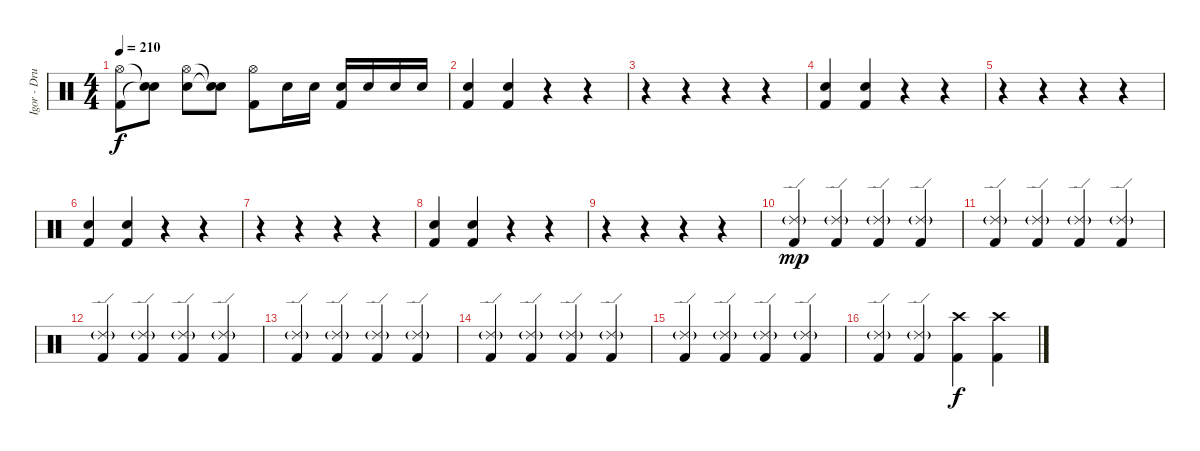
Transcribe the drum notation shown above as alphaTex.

\track ("Igor - Drums" "Igor - Dru") {instrument percussion}
\staff {score}
\articulation defaults
\ts (4 4)
\tempo 210
\clef neutral
\ks c
("Hi-Hat (open)" "Kick (hit) 2").8{dy f} ("Snare (hit)"{t} "Snare (hit)"{t}).8 ("Hi-Hat (open)" "Snare (hit) 2").8 ("Snare (hit)"{t} "Snare (hit)"{t}).8 ("Hi-Hat (open)" "Kick (hit) 2").8 "Snare (hit) 2".16 "Snare (hit) 2".16 ("Snare (hit) 2" "Kick (hit) 2").16 "Snare (hit) 2".16 "Snare (hit) 2".16 "Snare (hit) 2".16 |
("Snare (hit) 2" "Kick (hit) 2").4 ("Snare (hit) 2" "Kick (hit) 2").4 r.4 r.4 |
r.4 r.4 r.4 r.4 |
("Snare (hit) 2" "Kick (hit) 2").4 ("Snare (hit) 2" "Kick (hit) 2").4 r.4 r.4 |
r.4 r.4 r.4 r.4 |
("Snare (hit) 2" "Kick (hit) 2").4 ("Snare (hit) 2" "Kick (hit) 2").4 r.4 r.4 |
r.4 r.4 r.4 r.4 |
("Snare (hit) 2" "Kick (hit) 2").4 ("Snare (hit) 2" "Kick (hit) 2").4 r.4 r.4 |
r.4 r.4 r.4 r.4 |
("Ride (edge) 2"{g} "Kick (hit) 2").4{dy mp} ("Ride (edge) 2"{g} "Kick (hit) 2").4 ("Ride (edge) 2"{g} "Kick (hit) 2").4 ("Ride (edge) 2"{g} "Kick (hit) 2").4 |
("Ride (edge) 2"{g} "Kick (hit) 2").4 ("Ride (edge) 2"{g} "Kick (hit) 2").4 ("Ride (edge) 2"{g} "Kick (hit) 2").4 ("Ride (edge) 2"{g} "Kick (hit) 2").4 |
("Ride (edge) 2"{g} "Kick (hit) 2").4 ("Ride (edge) 2"{g} "Kick (hit) 2").4 ("Ride (edge) 2"{g} "Kick (hit) 2").4 ("Ride (edge) 2"{g} "Kick (hit) 2").4 |
("Ride (edge) 2"{g} "Kick (hit) 2").4 ("Ride (edge) 2"{g} "Kick (hit) 2").4 ("Ride (edge) 2"{g} "Kick (hit) 2").4 ("Ride (edge) 2"{g} "Kick (hit) 2").4 |
("Ride (edge) 2"{g} "Kick (hit) 2").4 ("Ride (edge) 2"{g} "Kick (hit) 2").4 ("Ride (edge) 2"{g} "Kick (hit) 2").4 ("Ride (edge) 2"{g} "Kick (hit) 2").4 |
("Ride (edge) 2"{g} "Kick (hit) 2").4 ("Ride (edge) 2"{g} "Kick (hit) 2").4 ("Ride (edge) 2"{g} "Kick (hit) 2").4 ("Ride (edge) 2"{g} "Kick (hit) 2").4 |
("Ride (edge) 2"{g} "Kick (hit) 2").4 ("Ride (edge) 2"{g} "Kick (hit) 2").4 ("Crash high (hit)" "Kick (hit) 2").4{dy f} ("Crash high (hit)" "Kick (hit) 2").4
